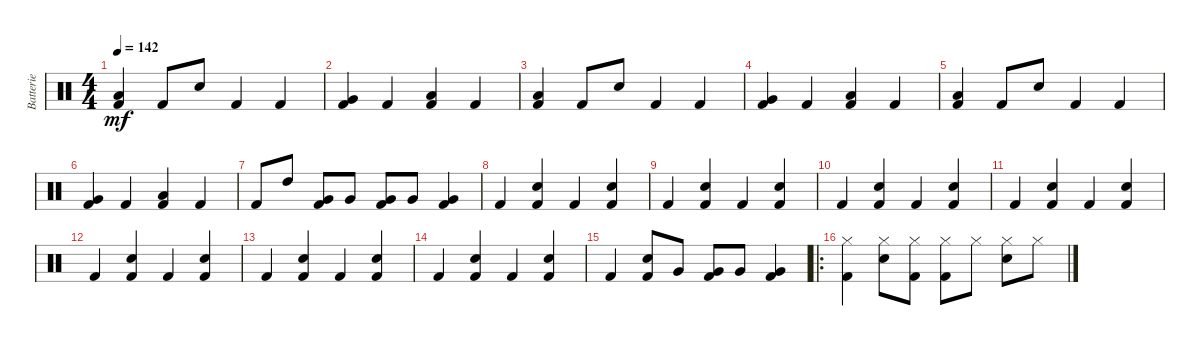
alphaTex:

\track ("Batterie" "Batterie") {instrument percussion}
\staff {score}
\articulation defaults
\ts (4 4)
\tempo 142
\clef neutral
\ks c
("Low Floor Tom (hit)" "Kick (hit) 2").4{dy mf} "Kick (hit) 2".8 "Snare (hit) 2".8 "Kick (hit) 2".4 "Kick (hit) 2".4 |
("Very Low Tom (hit)" "Kick (hit) 2").4 "Kick (hit) 2".4 ("Low Floor Tom (hit)" "Kick (hit) 2").4 "Kick (hit) 2".4 |
("Low Floor Tom (hit)" "Kick (hit) 2").4 "Kick (hit) 2".8 "Snare (hit) 2".8 "Kick (hit) 2".4 "Kick (hit) 2".4 |
("Very Low Tom (hit)" "Kick (hit) 2").4 "Kick (hit) 2".4 ("Low Floor Tom (hit)" "Kick (hit) 2").4 "Kick (hit) 2".4 |
("Low Floor Tom (hit)" "Kick (hit) 2").4 "Kick (hit) 2".8 "Snare (hit) 2".8 "Kick (hit) 2".4 "Kick (hit) 2".4 |
("Very Low Tom (hit)" "Kick (hit) 2").4 "Kick (hit) 2".4 ("Low Floor Tom (hit)" "Kick (hit) 2").4 "Kick (hit) 2".4 |
"Kick (hit) 2".8 "High Tom (hit)".8 ("Very Low Tom (hit)" "Kick (hit) 2").8 "Very Low Tom (hit)".8 ("Very Low Tom (hit)" "Kick (hit) 2").8 "Very Low Tom (hit)".8 ("Very Low Tom (hit)" "Kick (hit) 2").4 |
"Kick (hit) 2".4 ("Snare (hit) 2" "Kick (hit) 2").4 "Kick (hit) 2".4 ("Snare (hit) 2" "Kick (hit) 2").4 |
"Kick (hit) 2".4 ("Snare (hit) 2" "Kick (hit) 2").4 "Kick (hit) 2".4 ("Snare (hit) 2" "Kick (hit) 2").4 |
"Kick (hit) 2".4 ("Snare (hit) 2" "Kick (hit) 2").4 "Kick (hit) 2".4 ("Snare (hit) 2" "Kick (hit) 2").4 |
"Kick (hit) 2".4 ("Snare (hit) 2" "Kick (hit) 2").4 "Kick (hit) 2".4 ("Snare (hit) 2" "Kick (hit) 2").4 |
"Kick (hit) 2".4 ("Snare (hit) 2" "Kick (hit) 2").4 "Kick (hit) 2".4 ("Snare (hit) 2" "Kick (hit) 2").4 |
"Kick (hit) 2".4 ("Snare (hit) 2" "Kick (hit) 2").4 "Kick (hit) 2".4 ("Snare (hit) 2" "Kick (hit) 2").4 |
"Kick (hit) 2".4 ("Snare (hit) 2" "Kick (hit) 2").4 "Kick (hit) 2".4 ("Snare (hit) 2" "Kick (hit) 2").4 |
"Kick (hit) 2".4 ("Snare (hit) 2" "Kick (hit) 2").8 "Very Low Tom (hit)".8 ("Very Low Tom (hit)" "Kick (hit) 2").8 "Very Low Tom (hit)".8 ("Very Low Tom (hit)" "Kick (hit) 2").4 |
\ro
("Hi-Hat (closed)" "Kick (hit) 2").4 ("Hi-Hat (closed)" "Snare (hit) 2").8 ("Hi-Hat (closed)" "Kick (hit) 2").8 ("Hi-Hat (closed)" "Kick (hit) 2").8 "Hi-Hat (closed)".8 ("Hi-Hat (closed)" "Snare (hit) 2").8 "Hi-Hat (closed)".8
